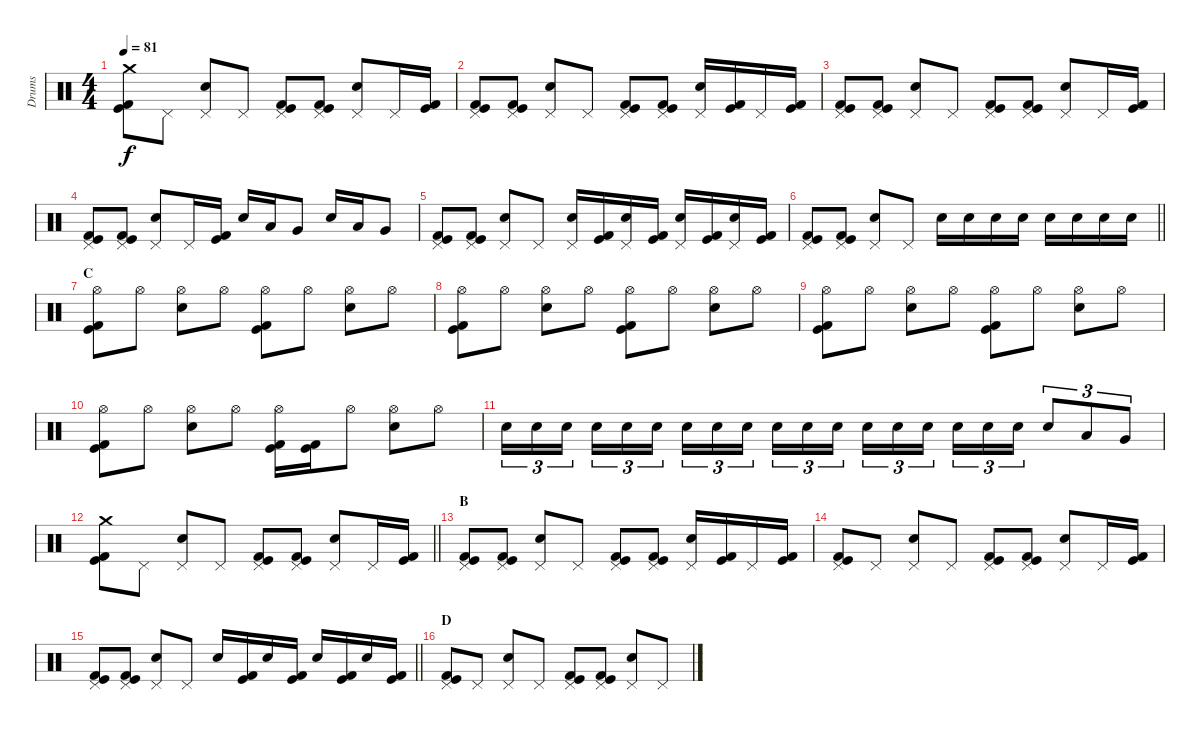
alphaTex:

\track ("Drums" "Drums") {instrument percussion}
\staff {score}
\articulation defaults
\ts (4 4)
\tempo 81
\clef neutral
\ks c
("Crash medium (hit)" "Kick (hit)" "Kick (hit) 2").8{dy f} "Pedal Hi-Hat (hit)".8 ("Pedal Hi-Hat (hit)" "Electric Snare (hit)").8 "Pedal Hi-Hat (hit)".8 ("Pedal Hi-Hat (hit)" "Kick (hit)" "Kick (hit) 2").8 ("Pedal Hi-Hat (hit)" "Kick (hit)" "Kick (hit) 2").8 ("Pedal Hi-Hat (hit)" "Electric Snare (hit)").8 "Pedal Hi-Hat (hit)".16 ("Kick (hit)" "Kick (hit) 2").16 |
("Pedal Hi-Hat (hit)" "Kick (hit)" "Kick (hit) 2").8 ("Pedal Hi-Hat (hit)" "Kick (hit)" "Kick (hit) 2").8 ("Pedal Hi-Hat (hit)" "Electric Snare (hit)").8 "Pedal Hi-Hat (hit)".8 ("Pedal Hi-Hat (hit)" "Kick (hit)" "Kick (hit) 2").8 ("Pedal Hi-Hat (hit)" "Kick (hit)" "Kick (hit) 2").8 ("Pedal Hi-Hat (hit)" "Electric Snare (hit)").16 ("Kick (hit)" "Kick (hit) 2").16 "Pedal Hi-Hat (hit)".16 ("Kick (hit)" "Kick (hit) 2").16 |
("Pedal Hi-Hat (hit)" "Kick (hit)" "Kick (hit) 2").8 ("Pedal Hi-Hat (hit)" "Kick (hit)" "Kick (hit) 2").8 ("Pedal Hi-Hat (hit)" "Electric Snare (hit)").8 "Pedal Hi-Hat (hit)".8 ("Pedal Hi-Hat (hit)" "Kick (hit)" "Kick (hit) 2").8 ("Pedal Hi-Hat (hit)" "Kick (hit)" "Kick (hit) 2").8 ("Pedal Hi-Hat (hit)" "Electric Snare (hit)").8 "Pedal Hi-Hat (hit)".16 ("Kick (hit)" "Kick (hit) 2").16 |
("Pedal Hi-Hat (hit)" "Kick (hit)" "Kick (hit) 2").8 ("Pedal Hi-Hat (hit)" "Kick (hit)" "Kick (hit) 2").8 ("Pedal Hi-Hat (hit)" "Electric Snare (hit)").8 "Pedal Hi-Hat (hit)".16 ("Kick (hit)" "Kick (hit) 2").16 "Electric Snare (hit)".16 "Low Tom (hit)".16 "Very Low Tom (hit)".8 "Electric Snare (hit)".16 "Low Tom (hit)".16 "Very Low Tom (hit)".8 |
("Pedal Hi-Hat (hit)" "Kick (hit)" "Kick (hit) 2").8 ("Pedal Hi-Hat (hit)" "Kick (hit)" "Kick (hit) 2").8 ("Pedal Hi-Hat (hit)" "Electric Snare (hit)").8 "Pedal Hi-Hat (hit)".8 ("Pedal Hi-Hat (hit)" "Electric Snare (hit)").16 ("Kick (hit)" "Kick (hit) 2").16 ("Pedal Hi-Hat (hit)" "Electric Snare (hit)").16 ("Kick (hit)" "Kick (hit) 2").16 ("Pedal Hi-Hat (hit)" "Electric Snare (hit)").16 ("Kick (hit)" "Kick (hit) 2").16 ("Pedal Hi-Hat (hit)" "Electric Snare (hit)").16 ("Kick (hit)" "Kick (hit) 2").16 |
\barLineRight lightlight
("Pedal Hi-Hat (hit)" "Kick (hit)" "Kick (hit) 2").8 ("Pedal Hi-Hat (hit)" "Kick (hit)" "Kick (hit) 2").8 ("Pedal Hi-Hat (hit)" "Electric Snare (hit)").8 "Pedal Hi-Hat (hit)".8 "Electric Snare (hit)".16 "Electric Snare (hit)".16 "Electric Snare (hit)".16 "Electric Snare (hit)".16 "Electric Snare (hit)".16 "Electric Snare (hit)".16 "Electric Snare (hit)".16 "Electric Snare (hit)".16 |
\section ("" "C")
("Hi-Hat (open)" "Kick (hit)" "Kick (hit) 2").8 "Hi-Hat (open)".8 ("Hi-Hat (open)" "Electric Snare (hit)").8 "Hi-Hat (open)".8 ("Hi-Hat (open)" "Kick (hit)" "Kick (hit) 2").8 "Hi-Hat (open)".8 ("Hi-Hat (open)" "Electric Snare (hit)").8 "Hi-Hat (open)".8 |
("Hi-Hat (open)" "Kick (hit)" "Kick (hit) 2").8 "Hi-Hat (open)".8 ("Hi-Hat (open)" "Electric Snare (hit)").8 "Hi-Hat (open)".8 ("Hi-Hat (open)" "Kick (hit)" "Kick (hit) 2").8 "Hi-Hat (open)".8 ("Hi-Hat (open)" "Electric Snare (hit)").8 "Hi-Hat (open)".8 |
("Hi-Hat (open)" "Kick (hit)" "Kick (hit) 2").8 "Hi-Hat (open)".8 ("Hi-Hat (open)" "Electric Snare (hit)").8 "Hi-Hat (open)".8 ("Hi-Hat (open)" "Kick (hit)" "Kick (hit) 2").8 "Hi-Hat (open)".8 ("Hi-Hat (open)" "Electric Snare (hit)").8 "Hi-Hat (open)".8 |
("Hi-Hat (open)" "Kick (hit)" "Kick (hit) 2").8 "Hi-Hat (open)".8 ("Hi-Hat (open)" "Electric Snare (hit)").8 "Hi-Hat (open)".8 ("Hi-Hat (open)" "Kick (hit)" "Kick (hit) 2").16 ("Kick (hit)" "Kick (hit) 2").16 "Hi-Hat (open)".8 ("Hi-Hat (open)" "Electric Snare (hit)").8 "Hi-Hat (open)".8 |
"Electric Snare (hit)".16{tu (3 2)} "Electric Snare (hit)".16{tu (3 2)} "Electric Snare (hit)".16{tu (3 2) beam splitsecondary} "Electric Snare (hit)".16{tu (3 2)} "Electric Snare (hit)".16{tu (3 2)} "Electric Snare (hit)".16{tu (3 2)} "Electric Snare (hit)".16{tu (3 2)} "Electric Snare (hit)".16{tu (3 2)} "Electric Snare (hit)".16{tu (3 2) beam splitsecondary} "Electric Snare (hit)".16{tu (3 2)} "Electric Snare (hit)".16{tu (3 2)} "Electric Snare (hit)".16{tu (3 2)} "Electric Snare (hit)".16{tu (3 2)} "Electric Snare (hit)".16{tu (3 2)} "Electric Snare (hit)".16{tu (3 2) beam splitsecondary} "Electric Snare (hit)".16{tu (3 2)} "Electric Snare (hit)".16{tu (3 2)} "Electric Snare (hit)".16{tu (3 2)} "Electric Snare (hit)".8{tu (3 2)} "Low Tom (hit)".8{tu (3 2)} "Very Low Tom (hit)".8{tu (3 2)} |
\barLineRight lightlight
("Crash medium (hit)" "Kick (hit)" "Kick (hit) 2").8 "Pedal Hi-Hat (hit)".8 ("Pedal Hi-Hat (hit)" "Electric Snare (hit)").8 "Pedal Hi-Hat (hit)".8 ("Pedal Hi-Hat (hit)" "Kick (hit)" "Kick (hit) 2").8 ("Pedal Hi-Hat (hit)" "Kick (hit)" "Kick (hit) 2").8 ("Pedal Hi-Hat (hit)" "Electric Snare (hit)").8 "Pedal Hi-Hat (hit)".16 ("Kick (hit)" "Kick (hit) 2").16 |
\section ("" "B")
("Pedal Hi-Hat (hit)" "Kick (hit)" "Kick (hit) 2").8 ("Pedal Hi-Hat (hit)" "Kick (hit)" "Kick (hit) 2").8 ("Pedal Hi-Hat (hit)" "Electric Snare (hit)").8 "Pedal Hi-Hat (hit)".8 ("Pedal Hi-Hat (hit)" "Kick (hit)" "Kick (hit) 2").8 ("Pedal Hi-Hat (hit)" "Kick (hit)" "Kick (hit) 2").8 ("Pedal Hi-Hat (hit)" "Electric Snare (hit)").16 ("Kick (hit)" "Kick (hit) 2").16 "Pedal Hi-Hat (hit)".16 ("Kick (hit)" "Kick (hit) 2").16 |
("Pedal Hi-Hat (hit)" "Kick (hit)" "Kick (hit) 2").8 "Pedal Hi-Hat (hit)".8 ("Pedal Hi-Hat (hit)" "Electric Snare (hit)").8 "Pedal Hi-Hat (hit)".8 ("Pedal Hi-Hat (hit)" "Kick (hit)" "Kick (hit) 2").8 ("Pedal Hi-Hat (hit)" "Kick (hit)" "Kick (hit) 2").8 ("Pedal Hi-Hat (hit)" "Electric Snare (hit)").8 "Pedal Hi-Hat (hit)".16 ("Kick (hit)" "Kick (hit) 2").16 |
\barLineRight lightlight
("Pedal Hi-Hat (hit)" "Kick (hit)" "Kick (hit) 2").8 ("Pedal Hi-Hat (hit)" "Kick (hit)" "Kick (hit) 2").8 ("Pedal Hi-Hat (hit)" "Electric Snare (hit)").8 "Pedal Hi-Hat (hit)".8 "Electric Snare (hit)".16 ("Kick (hit)" "Kick (hit) 2").16 "Electric Snare (hit)".16 ("Kick (hit)" "Kick (hit) 2").16 "Electric Snare (hit)".16 ("Kick (hit)" "Kick (hit) 2").16 "Electric Snare (hit)".16 ("Kick (hit)" "Kick (hit) 2").16 |
\section ("" "D")
("Pedal Hi-Hat (hit)" "Kick (hit)" "Kick (hit) 2").8 "Pedal Hi-Hat (hit)".8 ("Pedal Hi-Hat (hit)" "Electric Snare (hit)").8 "Pedal Hi-Hat (hit)".8 ("Pedal Hi-Hat (hit)" "Kick (hit)" "Kick (hit) 2").8 ("Pedal Hi-Hat (hit)" "Kick (hit)" "Kick (hit) 2").8 ("Pedal Hi-Hat (hit)" "Electric Snare (hit)").8 "Pedal Hi-Hat (hit)".8
